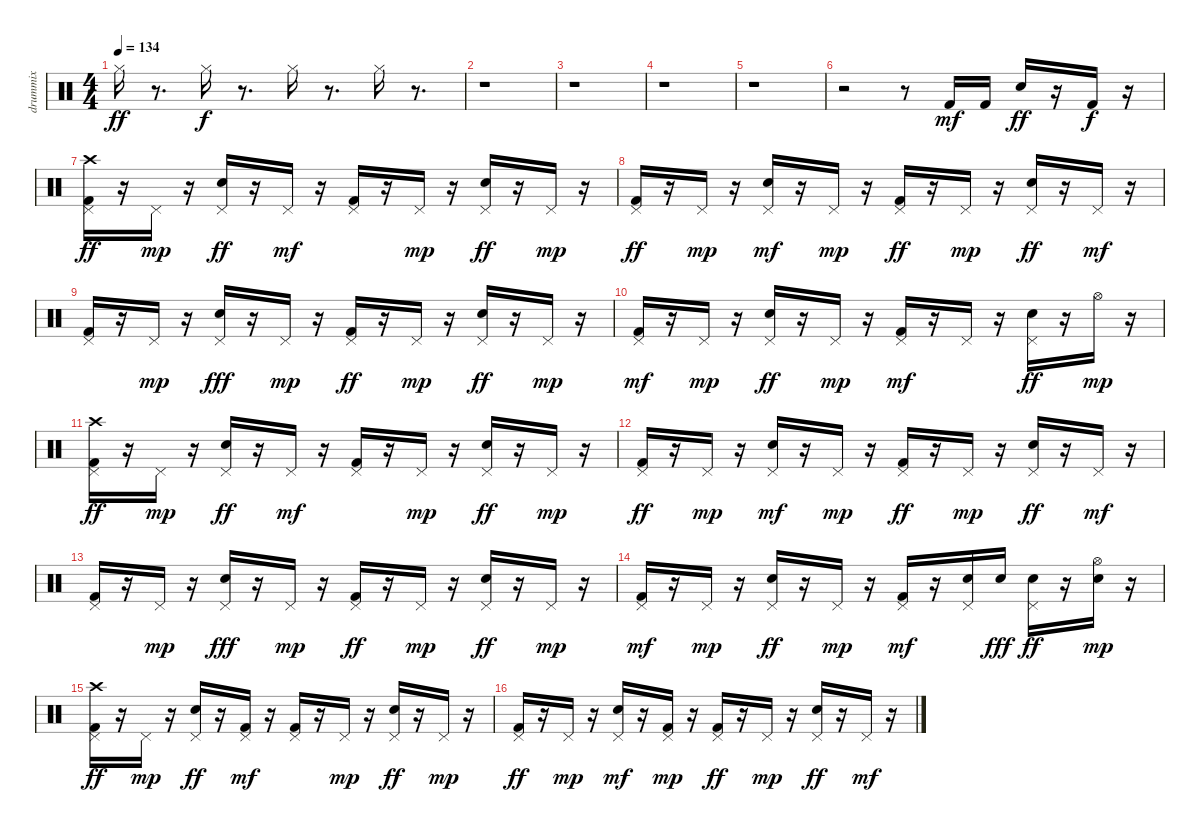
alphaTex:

\track ("drummix" "drummix") {instrument percussion}
\staff {score}
\articulation defaults
\ts (4 4)
\tempo 134
\clef neutral
\ks c "Hi-Hat (closed)".16{dy ff}
r.8{d} "Hi-Hat (closed)".16{dy f} r.8{d} "Hi-Hat (closed)".16{volume 14} r.8{d} "Hi-Hat (closed)".16 r.8{d} |
r.1 |
r.1 |
r.1 |
r.1 |
r.2 r.8 "Kick (hit) 2".16{dy mf} "Kick (hit) 2".16 "Snare (hit) 2".16{dy ff} r.16 "Kick (hit) 2".16{dy f} r.16 |
("Kick (hit) 2" "Pedal Hi-Hat (hit)" "Crash high (hit)").16{dy ff} r.16 "Pedal Hi-Hat (hit)".16{dy mp} r.16 ("Snare (hit) 2" "Pedal Hi-Hat (hit)").16{dy ff} r.16 "Pedal Hi-Hat (hit)".16{dy mf} r.16 ("Kick (hit) 2" "Pedal Hi-Hat (hit)").16 r.16 "Pedal Hi-Hat (hit)".16{dy mp} r.16 ("Snare (hit) 2" "Pedal Hi-Hat (hit)").16{dy ff} r.16 "Pedal Hi-Hat (hit)".16{dy mp} r.16 |
("Kick (hit) 2" "Pedal Hi-Hat (hit)").16{dy ff} r.16 "Pedal Hi-Hat (hit)".16{dy mp} r.16 ("Snare (hit) 2" "Pedal Hi-Hat (hit)").16{dy mf} r.16 "Pedal Hi-Hat (hit)".16{dy mp} r.16 ("Kick (hit) 2" "Pedal Hi-Hat (hit)").16{dy ff} r.16 "Pedal Hi-Hat (hit)".16{dy mp} r.16 ("Snare (hit) 2" "Pedal Hi-Hat (hit)").16{dy ff} r.16 "Pedal Hi-Hat (hit)".16{dy mf} r.16 |
("Kick (hit) 2" "Pedal Hi-Hat (hit)").16 r.16 "Pedal Hi-Hat (hit)".16{dy mp} r.16 ("Snare (hit) 2" "Pedal Hi-Hat (hit)").16{dy fff} r.16 "Pedal Hi-Hat (hit)".16{dy mp} r.16 ("Kick (hit) 2" "Pedal Hi-Hat (hit)").16{dy ff} r.16 "Pedal Hi-Hat (hit)".16{dy mp} r.16 ("Snare (hit) 2" "Pedal Hi-Hat (hit)").16{dy ff} r.16 "Pedal Hi-Hat (hit)".16{dy mp} r.16 |
("Kick (hit) 2" "Pedal Hi-Hat (hit)").16{dy mf} r.16 "Pedal Hi-Hat (hit)".16{dy mp} r.16 ("Snare (hit) 2" "Pedal Hi-Hat (hit)").16{dy ff} r.16 "Pedal Hi-Hat (hit)".16{dy mp} r.16 ("Kick (hit) 2" "Pedal Hi-Hat (hit)").16{dy mf} r.16 "Pedal Hi-Hat (hit)".16 r.16 ("Snare (hit) 2" "Pedal Hi-Hat (hit)").16{dy ff} r.16 "Hi-Hat (open)".16{dy mp} r.16 |
("Kick (hit) 2" "Pedal Hi-Hat (hit)" "Crash high (hit)").16{dy ff} r.16 "Pedal Hi-Hat (hit)".16{dy mp} r.16 ("Snare (hit) 2" "Pedal Hi-Hat (hit)").16{dy ff} r.16 "Pedal Hi-Hat (hit)".16{dy mf} r.16 ("Kick (hit) 2" "Pedal Hi-Hat (hit)").16 r.16 "Pedal Hi-Hat (hit)".16{dy mp} r.16 ("Snare (hit) 2" "Pedal Hi-Hat (hit)").16{dy ff} r.16 "Pedal Hi-Hat (hit)".16{dy mp} r.16 |
("Kick (hit) 2" "Pedal Hi-Hat (hit)").16{dy ff} r.16 "Pedal Hi-Hat (hit)".16{dy mp} r.16 ("Snare (hit) 2" "Pedal Hi-Hat (hit)").16{dy mf} r.16 "Pedal Hi-Hat (hit)".16{dy mp} r.16 ("Kick (hit) 2" "Pedal Hi-Hat (hit)").16{dy ff} r.16 "Pedal Hi-Hat (hit)".16{dy mp} r.16 ("Snare (hit) 2" "Pedal Hi-Hat (hit)").16{dy ff} r.16 "Pedal Hi-Hat (hit)".16{dy mf} r.16 |
("Kick (hit) 2" "Pedal Hi-Hat (hit)").16 r.16 "Pedal Hi-Hat (hit)".16{dy mp} r.16 ("Snare (hit) 2" "Pedal Hi-Hat (hit)").16{dy fff} r.16 "Pedal Hi-Hat (hit)".16{dy mp} r.16 ("Kick (hit) 2" "Pedal Hi-Hat (hit)").16{dy ff} r.16 "Pedal Hi-Hat (hit)".16{dy mp} r.16 ("Snare (hit) 2" "Pedal Hi-Hat (hit)").16{dy ff} r.16 "Pedal Hi-Hat (hit)".16{dy mp} r.16 |
("Kick (hit) 2" "Pedal Hi-Hat (hit)").16{dy mf} r.16 "Pedal Hi-Hat (hit)".16{dy mp} r.16 ("Snare (hit) 2" "Pedal Hi-Hat (hit)").16{dy ff} r.16 "Pedal Hi-Hat (hit)".16{dy mp} r.16 ("Kick (hit) 2" "Pedal Hi-Hat (hit)").16{dy mf} r.16 ("Snare (hit) 2" "Pedal Hi-Hat (hit)").16 "Snare (hit) 2".16{dy fff} ("Snare (hit) 2" "Pedal Hi-Hat (hit)").16{dy ff} r.16 ("Snare (hit) 2" "Hi-Hat (open)").16{dy mp} r.16 |
("Kick (hit) 2" "Pedal Hi-Hat (hit)" "Crash high (hit)").16{dy ff} r.16 "Pedal Hi-Hat (hit)".16{dy mp} r.16 ("Snare (hit) 2" "Pedal Hi-Hat (hit)").16{dy ff} r.16 ("Kick (hit) 2" "Pedal Hi-Hat (hit)").16{dy mf} r.16 ("Kick (hit) 2" "Pedal Hi-Hat (hit)").16 r.16 "Pedal Hi-Hat (hit)".16{dy mp} r.16 ("Snare (hit) 2" "Pedal Hi-Hat (hit)").16{dy ff} r.16 "Pedal Hi-Hat (hit)".16{dy mp} r.16 |
("Kick (hit) 2" "Pedal Hi-Hat (hit)").16{dy ff} r.16 "Pedal Hi-Hat (hit)".16{dy mp} r.16 ("Snare (hit) 2" "Pedal Hi-Hat (hit)").16{dy mf} r.16 ("Kick (hit) 2" "Pedal Hi-Hat (hit)").16{dy mp} r.16 ("Kick (hit) 2" "Pedal Hi-Hat (hit)").16{dy ff} r.16 "Pedal Hi-Hat (hit)".16{dy mp} r.16 ("Snare (hit) 2" "Pedal Hi-Hat (hit)").16{dy ff} r.16 "Pedal Hi-Hat (hit)".16{dy mf} r.16
